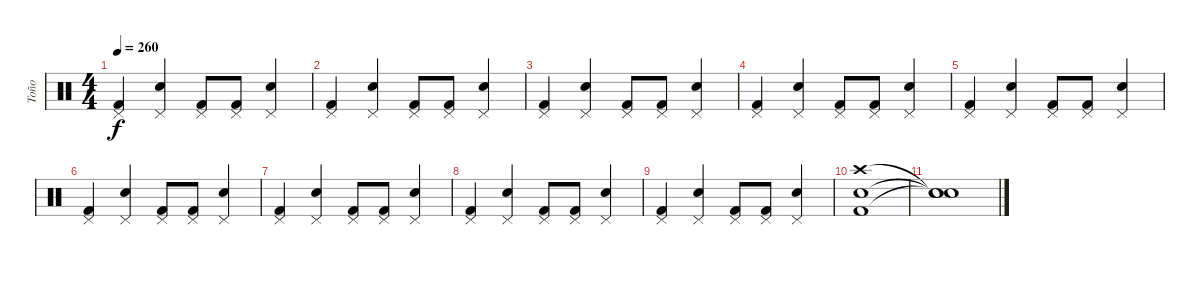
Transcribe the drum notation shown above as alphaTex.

\track ("Toño" "Toño") {instrument percussion}
\staff {score}
\articulation defaults
\ts (4 4)
\tempo 260
\clef neutral
\ks c
("Pedal Hi-Hat (hit)" "Kick (hit) 2").4{dy f} ("Pedal Hi-Hat (hit)" "Electric Snare (hit)").4 ("Pedal Hi-Hat (hit)" "Kick (hit) 2").8 ("Pedal Hi-Hat (hit)" "Kick (hit) 2").8 ("Pedal Hi-Hat (hit)" "Electric Snare (hit)").4 |
("Pedal Hi-Hat (hit)" "Kick (hit) 2").4 ("Pedal Hi-Hat (hit)" "Electric Snare (hit)").4 ("Pedal Hi-Hat (hit)" "Kick (hit) 2").8 ("Pedal Hi-Hat (hit)" "Kick (hit) 2").8 ("Pedal Hi-Hat (hit)" "Electric Snare (hit)").4 |
("Pedal Hi-Hat (hit)" "Kick (hit) 2").4 ("Pedal Hi-Hat (hit)" "Electric Snare (hit)").4 ("Pedal Hi-Hat (hit)" "Kick (hit) 2").8 ("Pedal Hi-Hat (hit)" "Kick (hit) 2").8 ("Pedal Hi-Hat (hit)" "Electric Snare (hit)").4 |
("Pedal Hi-Hat (hit)" "Kick (hit) 2").4 ("Pedal Hi-Hat (hit)" "Electric Snare (hit)").4 ("Pedal Hi-Hat (hit)" "Kick (hit) 2").8 ("Pedal Hi-Hat (hit)" "Kick (hit) 2").8 ("Pedal Hi-Hat (hit)" "Electric Snare (hit)").4 |
("Pedal Hi-Hat (hit)" "Kick (hit) 2").4 ("Pedal Hi-Hat (hit)" "Electric Snare (hit)").4 ("Pedal Hi-Hat (hit)" "Kick (hit) 2").8 ("Pedal Hi-Hat (hit)" "Kick (hit) 2").8 ("Pedal Hi-Hat (hit)" "Electric Snare (hit)").4 |
("Pedal Hi-Hat (hit)" "Kick (hit) 2").4 ("Pedal Hi-Hat (hit)" "Electric Snare (hit)").4 ("Pedal Hi-Hat (hit)" "Kick (hit) 2").8 ("Pedal Hi-Hat (hit)" "Kick (hit) 2").8 ("Pedal Hi-Hat (hit)" "Electric Snare (hit)").4 |
("Pedal Hi-Hat (hit)" "Kick (hit) 2").4 ("Pedal Hi-Hat (hit)" "Electric Snare (hit)").4 ("Pedal Hi-Hat (hit)" "Kick (hit) 2").8 ("Pedal Hi-Hat (hit)" "Kick (hit) 2").8 ("Pedal Hi-Hat (hit)" "Electric Snare (hit)").4 |
("Pedal Hi-Hat (hit)" "Kick (hit) 2").4 ("Pedal Hi-Hat (hit)" "Electric Snare (hit)").4 ("Pedal Hi-Hat (hit)" "Kick (hit) 2").8 ("Pedal Hi-Hat (hit)" "Kick (hit) 2").8 ("Pedal Hi-Hat (hit)" "Electric Snare (hit)").4 |
("Pedal Hi-Hat (hit)" "Kick (hit) 2").4 ("Pedal Hi-Hat (hit)" "Electric Snare (hit)").4 ("Pedal Hi-Hat (hit)" "Kick (hit) 2").8 ("Pedal Hi-Hat (hit)" "Kick (hit) 2").8 ("Pedal Hi-Hat (hit)" "Electric Snare (hit)").4 |
("Crash high (hit)" "Electric Snare (hit)" "Kick (hit) 2").1 |
("Snare (hit)"{t} "Snare (hit)"{t} "Snare (hit)"{t}).1
